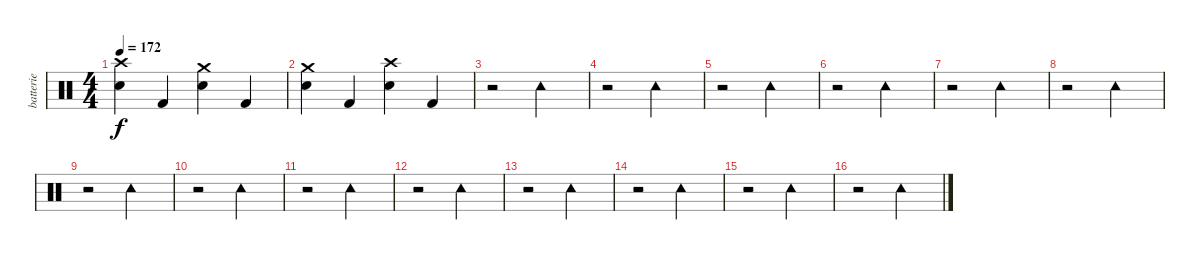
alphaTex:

\track ("batterie" "batterie") {instrument percussion}
\staff {score}
\articulation defaults
\ts (4 4)
\tempo 172
\clef neutral
\ks c
("Crash high (hit)" "Electric Snare (hit)").4{dy f} "Kick (hit) 2".4 ("Electric Snare (hit)" "Crash medium (hit)").4 "Kick (hit) 2".4 |
("Electric Snare (hit)" "Crash medium (hit)").4 "Kick (hit) 2".4 ("Electric Snare (hit)" "Crash high (hit)").4 "Kick (hit) 2".4 |
r.2 "Tambourine (hit)".2 |
r.2 "Tambourine (hit)".2 |
r.2 "Tambourine (hit)".2 |
r.2 "Tambourine (hit)".2 |
r.2 "Tambourine (hit)".2 |
r.2 "Tambourine (hit)".2 |
r.2 "Tambourine (hit)".2 |
r.2 "Tambourine (hit)".2 |
r.2 "Tambourine (hit)".2 |
r.2 "Tambourine (hit)".2 |
r.2 "Tambourine (hit)".2 |
r.2 "Tambourine (hit)".2 |
r.2 "Tambourine (hit)".2 |
r.2 "Tambourine (hit)".2
